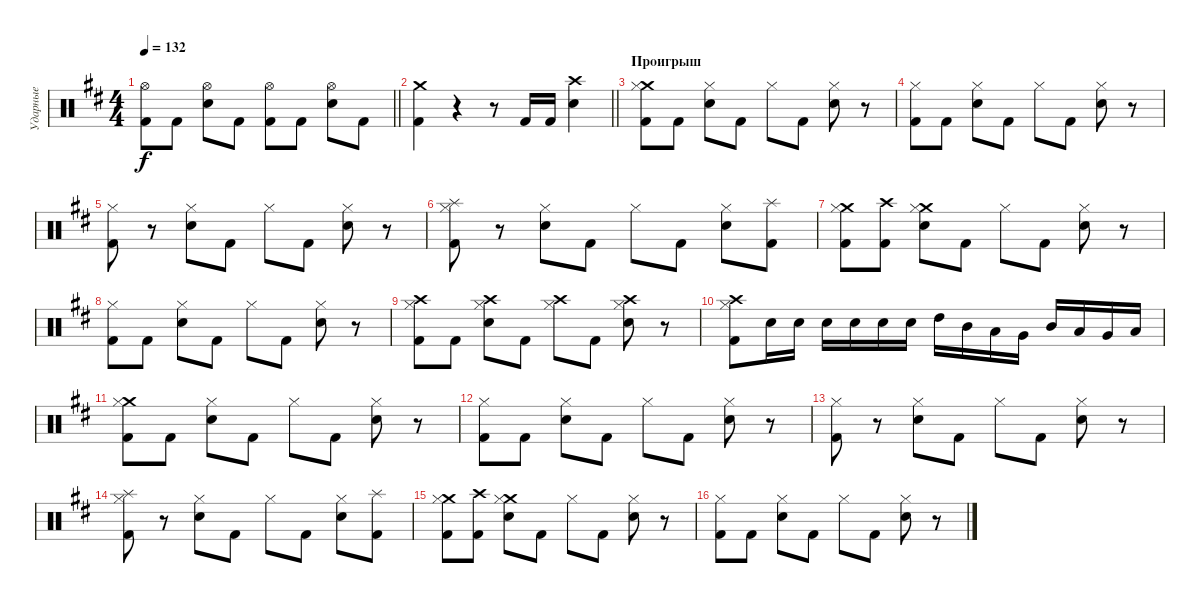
\track ("Ударные" "Ударные") {instrument percussion}
\staff {score}
\articulation defaults
\ts (4 4)
\tempo 132
\clef neutral
\barLineRight lightlight
\ks bminor
("Kick (hit) 2" "Hi-Hat (open)").8{dy f} "Kick (hit) 2".8 ("Electric Snare (hit)" "Hi-Hat (open)").8 "Kick (hit) 2".8 ("Kick (hit) 2" "Hi-Hat (open)").8 "Kick (hit) 2".8 ("Electric Snare (hit)" "Hi-Hat (open)").8 "Kick (hit) 2".8 |
\section ("" "")
\barLineRight lightlight
("Crash medium (hit)" "Kick (hit) 2").4 r.4 r.8 "Kick (hit) 2".16 "Kick (hit) 2".16 ("Crash high (hit)" "Electric Snare (hit)").4 |
\section ("" "Проигрыш")
("Crash medium (hit)" "Kick (hit) 2" "Hi-Hat (closed)").8 "Kick (hit) 2".8 ("Electric Snare (hit)" "Hi-Hat (closed)").8 "Kick (hit) 2".8 "Hi-Hat (closed)".8 "Kick (hit) 2".8 ("Electric Snare (hit)" "Hi-Hat (closed)").8 r.8 |
("Kick (hit) 2" "Hi-Hat (closed)").8 "Kick (hit) 2".8 ("Electric Snare (hit)" "Hi-Hat (closed)").8 "Kick (hit) 2".8 "Hi-Hat (closed)".8 "Kick (hit) 2".8 ("Electric Snare (hit)" "Hi-Hat (closed)").8 r.8 |
("Kick (hit) 2" "Hi-Hat (closed)").8 r.8 ("Electric Snare (hit)" "Hi-Hat (closed)").8 "Kick (hit) 2".8 "Hi-Hat (closed)".8 "Kick (hit) 2".8 ("Electric Snare (hit)" "Hi-Hat (closed)").8 r.8 |
("Splash (hit)" "Kick (hit) 2" "Hi-Hat (closed)").8 r.8 ("Electric Snare (hit)" "Hi-Hat (closed)").8 "Kick (hit) 2".8 "Hi-Hat (closed)".8 "Kick (hit) 2".8 ("Electric Snare (hit)" "Hi-Hat (closed)").8 ("Splash (hit)" "Kick (hit) 2").8 |
("Crash medium (hit)" "Kick (hit) 2" "Hi-Hat (closed)").8 ("Crash high (hit)" "Kick (hit) 2").8 ("Crash medium (hit)" "Electric Snare (hit)" "Hi-Hat (closed)").8 "Kick (hit) 2".8 "Hi-Hat (closed)".8 "Kick (hit) 2".8 ("Electric Snare (hit)" "Hi-Hat (closed)").8 r.8 |
("Kick (hit) 2" "Hi-Hat (closed)").8 "Kick (hit) 2".8 ("Electric Snare (hit)" "Hi-Hat (closed)").8 "Kick (hit) 2".8 "Hi-Hat (closed)".8 "Kick (hit) 2".8 ("Electric Snare (hit)" "Hi-Hat (closed)").8 r.8 |
("Crash high (hit)" "Kick (hit) 2" "Hi-Hat (closed)").8 "Kick (hit) 2".8 ("Crash high (hit)" "Electric Snare (hit)" "Hi-Hat (closed)").8 "Kick (hit) 2".8 ("Crash high (hit)" "Hi-Hat (closed)").8 "Kick (hit) 2".8 ("Crash high (hit)" "Electric Snare (hit)" "Hi-Hat (closed)").8 r.8 |
("Crash high (hit)" "Kick (hit) 2" "Hi-Hat (closed)").8 "Electric Snare (hit)".16 "Electric Snare (hit)".16 "Electric Snare (hit)".16 "Electric Snare (hit)".16 "Electric Snare (hit)".16 "Electric Snare (hit)".16 "High Tom (hit)".16 "Mid Tom (hit)".16 "Low Tom (hit)".16 "Very Low Tom (hit)".16 "Mid Tom (hit)".16 "Low Tom (hit)".16 "Very Low Tom (hit)".16 "Low Floor Tom (hit)".16 |
("Crash medium (hit)" "Kick (hit) 2" "Hi-Hat (closed)").8 "Kick (hit) 2".8 ("Electric Snare (hit)" "Hi-Hat (closed)").8 "Kick (hit) 2".8 "Hi-Hat (closed)".8 "Kick (hit) 2".8 ("Electric Snare (hit)" "Hi-Hat (closed)").8 r.8 |
("Kick (hit) 2" "Hi-Hat (closed)").8 "Kick (hit) 2".8 ("Electric Snare (hit)" "Hi-Hat (closed)").8 "Kick (hit) 2".8 "Hi-Hat (closed)".8 "Kick (hit) 2".8 ("Electric Snare (hit)" "Hi-Hat (closed)").8 r.8 |
("Kick (hit) 2" "Hi-Hat (closed)").8 r.8 ("Electric Snare (hit)" "Hi-Hat (closed)").8 "Kick (hit) 2".8 "Hi-Hat (closed)".8 "Kick (hit) 2".8 ("Electric Snare (hit)" "Hi-Hat (closed)").8 r.8 |
("Splash (hit)" "Kick (hit) 2" "Hi-Hat (closed)").8 r.8 ("Electric Snare (hit)" "Hi-Hat (closed)").8 "Kick (hit) 2".8 "Hi-Hat (closed)".8 "Kick (hit) 2".8 ("Electric Snare (hit)" "Hi-Hat (closed)").8 ("Splash (hit)" "Kick (hit) 2").8 |
("Crash medium (hit)" "Kick (hit) 2" "Hi-Hat (closed)").8 ("Crash high (hit)" "Kick (hit) 2").8 ("Crash medium (hit)" "Electric Snare (hit)" "Hi-Hat (closed)").8 "Kick (hit) 2".8 "Hi-Hat (closed)".8 "Kick (hit) 2".8 ("Electric Snare (hit)" "Hi-Hat (closed)").8 r.8 |
("Kick (hit) 2" "Hi-Hat (closed)").8 "Kick (hit) 2".8 ("Electric Snare (hit)" "Hi-Hat (closed)").8 "Kick (hit) 2".8 "Hi-Hat (closed)".8 "Kick (hit) 2".8 ("Electric Snare (hit)" "Hi-Hat (closed)").8 r.8
